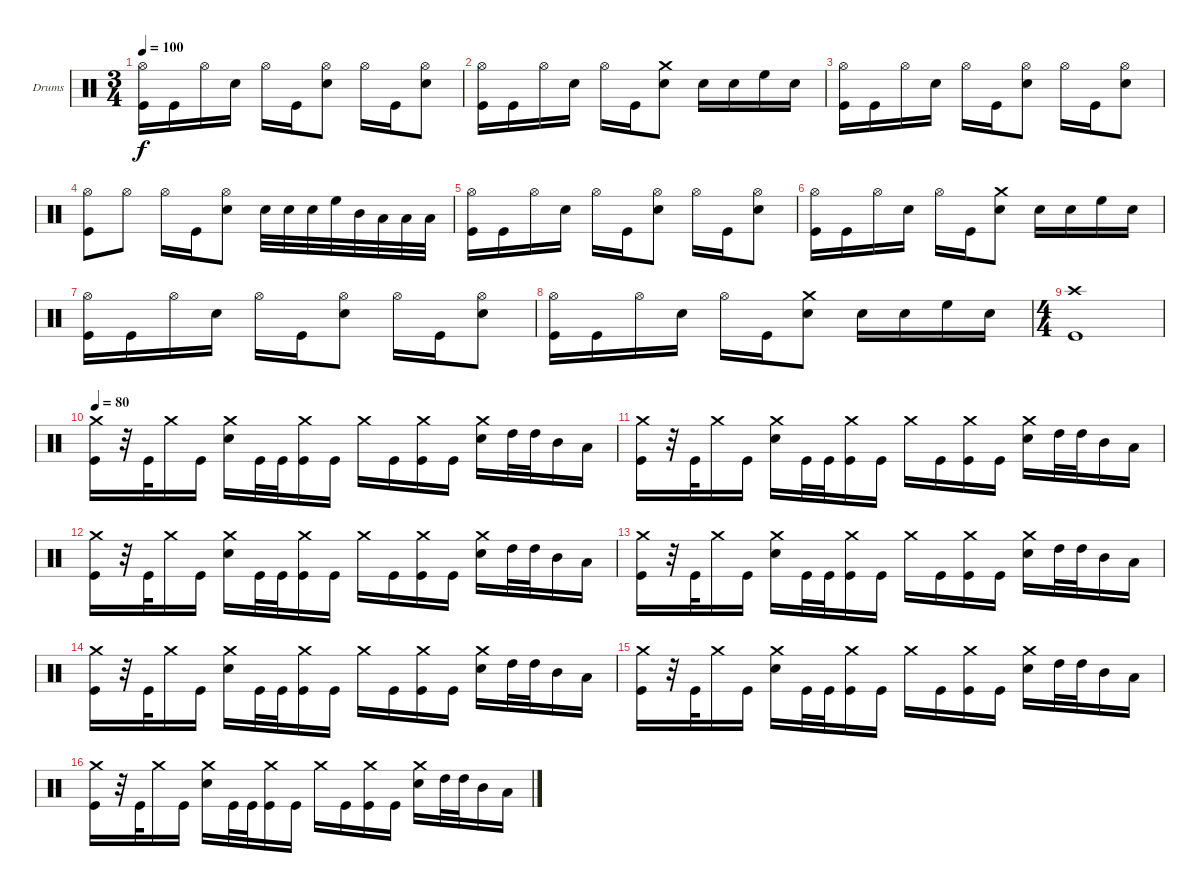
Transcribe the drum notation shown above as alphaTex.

\bracketExtendMode groupsimilarinstruments
\firstSystemTrackNameOrientation horizontal
\otherSystemsTrackNameOrientation horizontal
\track ("Emile Bardou" "Drums") {instrument percussion}
\staff {score}
\articulation defaults
\ts (3 4)
\tempo 100
\clef neutral
\scale
0.333333
\ks c
("Hi-Hat (open)" "Kick (hit)").16{dy f} "Kick (hit)".16 "Hi-Hat (open)".16 "Snare (hit) 2".16 "Hi-Hat (open)".16 "Kick (hit)".16 ("Hi-Hat (open)" "Snare (hit) 2").8 "Hi-Hat (open)".16 "Kick (hit)".16 ("Hi-Hat (open)" "Snare (hit) 2").8 |
\scale
0.333333 ("Hi-Hat (open)" "Kick (hit)").16 "Kick (hit)".16 "Hi-Hat (open)".16 "Snare (hit) 2".16 "Hi-Hat (open)".16 "Kick (hit)".16 ("Crash medium (hit)" "Snare (hit) 2").8 "Snare (hit) 2".16 "Snare (hit) 2".16 "High Floor Tom (hit)".16 "Snare (hit) 2".16 |
\scale
0.333333 ("Hi-Hat (open)" "Kick (hit)").16 "Kick (hit)".16 "Hi-Hat (open)".16 "Snare (hit) 2".16 "Hi-Hat (open)".16 "Kick (hit)".16 ("Hi-Hat (open)" "Snare (hit) 2").8 "Hi-Hat (open)".16 "Kick (hit)".16 ("Hi-Hat (open)" "Snare (hit) 2").8 |
\scale
0.333333 ("Hi-Hat (open)" "Kick (hit)").8 "Hi-Hat (open)".8 "Hi-Hat (open)".16 "Kick (hit)".16 ("Hi-Hat (open)" "Snare (hit) 2").8 "Snare (hit) 2".32 "Snare (hit) 2".32 "Snare (hit) 2".32 "High Floor Tom (hit)".32 "Mid Tom (hit)".32 "Low Tom (hit)".32 "Low Tom (hit)".32 "Low Tom (hit)".32 |
\scale
0.333333 ("Hi-Hat (open)" "Kick (hit)").16 "Kick (hit)".16 "Hi-Hat (open)".16 "Snare (hit) 2".16 "Hi-Hat (open)".16 "Kick (hit)".16 ("Hi-Hat (open)" "Snare (hit) 2").8 "Hi-Hat (open)".16 "Kick (hit)".16 ("Hi-Hat (open)" "Snare (hit) 2").8 |
\scale
0.333333 ("Hi-Hat (open)" "Kick (hit)").16 "Kick (hit)".16 "Hi-Hat (open)".16 "Snare (hit) 2".16 "Hi-Hat (open)".16 "Kick (hit)".16 ("Crash medium (hit)" "Snare (hit) 2").8 "Snare (hit) 2".16 "Snare (hit) 2".16 "High Floor Tom (hit)".16 "Snare (hit) 2".16 |
\scale
0.333333 ("Hi-Hat (open)" "Kick (hit)").16 "Kick (hit)".16 "Hi-Hat (open)".16 "Snare (hit) 2".16 "Hi-Hat (open)".16 "Kick (hit)".16 ("Hi-Hat (open)" "Snare (hit) 2").8 "Hi-Hat (open)".16 "Kick (hit)".16 ("Hi-Hat (open)" "Snare (hit) 2").8 |
\scale
0.262911 ("Hi-Hat (open)" "Kick (hit)").16 "Kick (hit)".16 "Hi-Hat (open)".16 "Snare (hit) 2".16 "Hi-Hat (open)".16 "Kick (hit)".16 ("Crash medium (hit)" "Snare (hit) 2").8 "Snare (hit) 2".16 "Snare (hit) 2".16 "High Floor Tom (hit)".16 "Snare (hit) 2".16 |
\ts (4 4)
\scale
0.474178 ("Crash high (hit)" "Kick (hit)").1 |
\tempo 80
\scale
0.262911 ("Crash medium (hit)" "Kick (hit)").16 r.32 "Kick (hit)".32 "Crash medium (hit)".16 "Kick (hit)".16 ("Crash medium (hit)" "Snare (hit) 2").16 "Kick (hit)".32 "Kick (hit)".32 ("Crash medium (hit)" "Kick (hit)").16 "Kick (hit)".16 "Crash medium (hit)".16 "Kick (hit)".16 ("Crash medium (hit)" "Kick (hit)").16 "Kick (hit)".16 ("Crash medium (hit)" "Snare (hit) 2").16 "High Tom (hit)".32 "High Tom (hit)".32 "Mid Tom (hit)".16 "Low Tom (hit)".16 |
\scale
0.333333 ("Crash medium (hit)" "Kick (hit)").16 r.32 "Kick (hit)".32 "Crash medium (hit)".16 "Kick (hit)".16 ("Crash medium (hit)" "Snare (hit) 2").16 "Kick (hit)".32 "Kick (hit)".32 ("Crash medium (hit)" "Kick (hit)").16 "Kick (hit)".16 "Crash medium (hit)".16 "Kick (hit)".16 ("Crash medium (hit)" "Kick (hit)").16 "Kick (hit)".16 ("Crash medium (hit)" "Snare (hit) 2").16 "High Tom (hit)".32 "High Tom (hit)".32 "Mid Tom (hit)".16 "Low Tom (hit)".16 |
\scale
0.333333 ("Crash medium (hit)" "Kick (hit)").16 r.32 "Kick (hit)".32 "Crash medium (hit)".16 "Kick (hit)".16 ("Crash medium (hit)" "Snare (hit) 2").16 "Kick (hit)".32 "Kick (hit)".32 ("Crash medium (hit)" "Kick (hit)").16 "Kick (hit)".16 "Crash medium (hit)".16 "Kick (hit)".16 ("Crash medium (hit)" "Kick (hit)").16 "Kick (hit)".16 ("Crash medium (hit)" "Snare (hit) 2").16 "High Tom (hit)".32 "High Tom (hit)".32 "Mid Tom (hit)".16 "Low Tom (hit)".16 |
\scale
0.333333 ("Crash medium (hit)" "Kick (hit)").16 r.32 "Kick (hit)".32 "Crash medium (hit)".16 "Kick (hit)".16 ("Crash medium (hit)" "Snare (hit) 2").16 "Kick (hit)".32 "Kick (hit)".32 ("Crash medium (hit)" "Kick (hit)").16 "Kick (hit)".16 "Crash medium (hit)".16 "Kick (hit)".16 ("Crash medium (hit)" "Kick (hit)").16 "Kick (hit)".16 ("Crash medium (hit)" "Snare (hit) 2").16 "High Tom (hit)".32 "High Tom (hit)".32 "Mid Tom (hit)".16 "Low Tom (hit)".16 |
\scale
0.333333 ("Crash medium (hit)" "Kick (hit)").16 r.32 "Kick (hit)".32 "Crash medium (hit)".16 "Kick (hit)".16 ("Crash medium (hit)" "Snare (hit) 2").16 "Kick (hit)".32 "Kick (hit)".32 ("Crash medium (hit)" "Kick (hit)").16 "Kick (hit)".16 "Crash medium (hit)".16 "Kick (hit)".16 ("Crash medium (hit)" "Kick (hit)").16 "Kick (hit)".16 ("Crash medium (hit)" "Snare (hit) 2").16 "High Tom (hit)".32 "High Tom (hit)".32 "Mid Tom (hit)".16 "Low Tom (hit)".16 |
\scale
0.333333 ("Crash medium (hit)" "Kick (hit)").16 r.32 "Kick (hit)".32 "Crash medium (hit)".16 "Kick (hit)".16 ("Crash medium (hit)" "Snare (hit) 2").16 "Kick (hit)".32 "Kick (hit)".32 ("Crash medium (hit)" "Kick (hit)").16 "Kick (hit)".16 "Crash medium (hit)".16 "Kick (hit)".16 ("Crash medium (hit)" "Kick (hit)").16 "Kick (hit)".16 ("Crash medium (hit)" "Snare (hit) 2").16 "High Tom (hit)".32 "High Tom (hit)".32 "Mid Tom (hit)".16 "Low Tom (hit)".16 |
\scale
0.333333 ("Crash medium (hit)" "Kick (hit)").16 r.32 "Kick (hit)".32 "Crash medium (hit)".16 "Kick (hit)".16 ("Crash medium (hit)" "Snare (hit) 2").16 "Kick (hit)".32 "Kick (hit)".32 ("Crash medium (hit)" "Kick (hit)").16 "Kick (hit)".16 "Crash medium (hit)".16 "Kick (hit)".16 ("Crash medium (hit)" "Kick (hit)").16 "Kick (hit)".16 ("Crash medium (hit)" "Snare (hit) 2").16 "High Tom (hit)".32 "High Tom (hit)".32 "Mid Tom (hit)".16 "Low Tom (hit)".16
